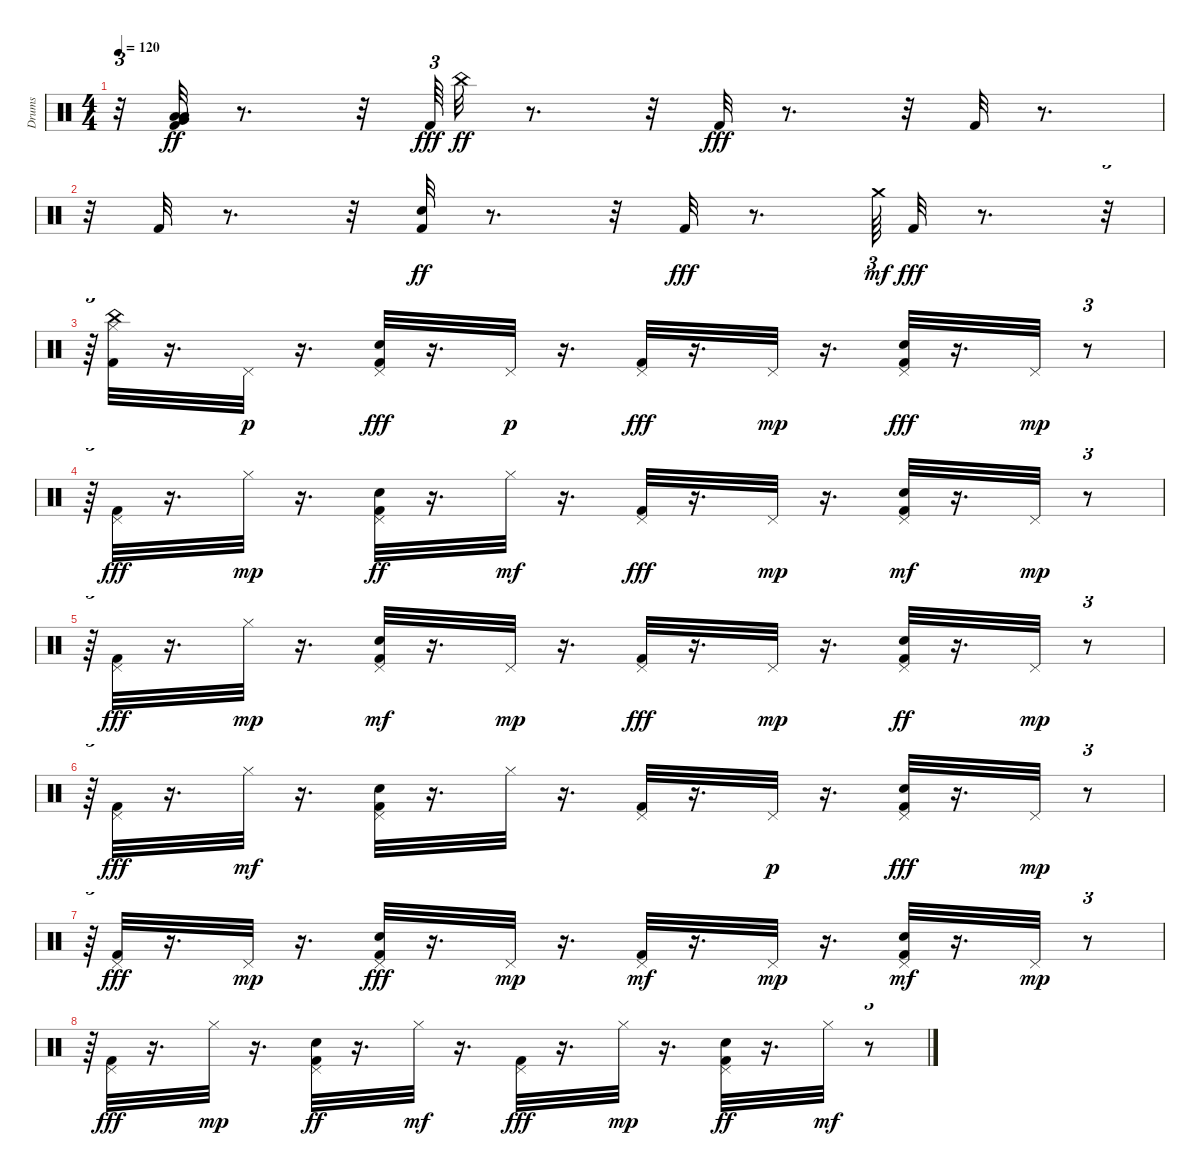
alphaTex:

\track ("Drums" "Drums") {instrument percussion}
\staff {score}
\articulation defaults
\ts (4 4)
\tempo 120
\clef neutral
\ks c
r.32{tu (3 2) dy fff} ("Low Tom (hit)" "Kick (hit) 2" "Very Low Tom (hit)" "Low Floor Tom (hit)").32{dy ff} r.8{d} r.32 "Kick (hit) 2".64{tu (3 2) dy fff} "China (hit)".32{dy ff} r.8{d} r.32 "Kick (hit) 2".32{dy fff} r.8{d} r.32 "Kick (hit) 2".32 r.8{d} |
r.32 "Kick (hit) 2".32 r.8{d} r.32 ("Kick (hit) 2" "Snare (hit) 2").32{dy ff} r.8{d} r.32 "Kick (hit) 2".32{dy fff} r.8{d} "Crash medium (hit)".64{tu (3 2) dy mf} "Kick (hit) 2".32{dy fff} r.8{d} r.32{tu (3 2)} |
r.64{tu (3 2)} ("China (hit)" "Kick (hit) 2" "Hi-Hat (closed)").32 r.16{d} "Pedal Hi-Hat (hit)".32{dy p} r.16{d} ("Pedal Hi-Hat (hit)" "Snare (hit) 2" "Kick (hit) 2").32{dy fff} r.16{d} "Pedal Hi-Hat (hit)".32{dy p} r.16{d} ("Pedal Hi-Hat (hit)" "Kick (hit) 2").32{dy fff} r.16{d} "Pedal Hi-Hat (hit)".32{dy mp} r.16{d} ("Pedal Hi-Hat (hit)" "Snare (hit) 2" "Kick (hit) 2").32{dy fff} r.16{d} "Pedal Hi-Hat (hit)".32{dy mp} r.8{tu (3 2)} |
r.64{tu (3 2)} ("Pedal Hi-Hat (hit)" "Kick (hit) 2").32{dy fff} r.16{d} "Hi-Hat (closed)".32{dy mp} r.16{d} ("Pedal Hi-Hat (hit)" "Kick (hit) 2" "Snare (hit) 2").32{dy ff} r.16{d} "Hi-Hat (closed)".32{dy mf} r.16{d} ("Pedal Hi-Hat (hit)" "Kick (hit) 2").32{dy fff} r.16{d} "Pedal Hi-Hat (hit)".32{dy mp} r.16{d} ("Snare (hit) 2" "Kick (hit) 2" "Pedal Hi-Hat (hit)").32{dy mf} r.16{d} "Pedal Hi-Hat (hit)".32{dy mp} r.8{tu (3 2)} |
r.64{tu (3 2)} ("Pedal Hi-Hat (hit)" "Kick (hit) 2").32{dy fff} r.16{d} "Hi-Hat (closed)".32{dy mp} r.16{d} ("Kick (hit) 2" "Snare (hit) 2" "Pedal Hi-Hat (hit)").32{dy mf} r.16{d} "Pedal Hi-Hat (hit)".32{dy mp} r.16{d} ("Pedal Hi-Hat (hit)" "Kick (hit) 2").32{dy fff} r.16{d} "Pedal Hi-Hat (hit)".32{dy mp} r.16{d} ("Kick (hit) 2" "Pedal Hi-Hat (hit)" "Snare (hit) 2").32{dy ff} r.16{d} "Pedal Hi-Hat (hit)".32{dy mp} r.8{tu (3 2)} |
r.64{tu (3 2)} ("Kick (hit) 2" "Pedal Hi-Hat (hit)").32{dy fff} r.16{d} "Hi-Hat (closed)".32{dy mf} r.16{d} ("Snare (hit) 2" "Kick (hit) 2" "Pedal Hi-Hat (hit)").32 r.16{d} "Hi-Hat (closed)".32 r.16{d} ("Kick (hit) 2" "Pedal Hi-Hat (hit)").32 r.16{d} "Pedal Hi-Hat (hit)".32{dy p} r.16{d} ("Pedal Hi-Hat (hit)" "Snare (hit) 2" "Kick (hit) 2").32{dy fff} r.16{d} "Pedal Hi-Hat (hit)".32{dy mp} r.8{tu (3 2)} |
r.64{tu (3 2)} ("Pedal Hi-Hat (hit)" "Kick (hit) 2").32{dy fff} r.16{d} "Pedal Hi-Hat (hit)".32{dy mp} r.16{d} ("Pedal Hi-Hat (hit)" "Snare (hit) 2" "Kick (hit) 2").32{dy fff} r.16{d} "Pedal Hi-Hat (hit)".32{dy mp} r.16{d} ("Kick (hit) 2" "Pedal Hi-Hat (hit)").32{dy mf} r.16{d} "Pedal Hi-Hat (hit)".32{dy mp} r.16{d} ("Kick (hit) 2" "Snare (hit) 2" "Pedal Hi-Hat (hit)").32{dy mf} r.16{d} "Pedal Hi-Hat (hit)".32{dy mp} r.8{tu (3 2)} |
r.64{tu (3 2)} ("Pedal Hi-Hat (hit)" "Kick (hit) 2").32{dy fff} r.16{d} "Hi-Hat (closed)".32{dy mp} r.16{d} ("Pedal Hi-Hat (hit)" "Kick (hit) 2" "Snare (hit) 2").32{dy ff} r.16{d} "Hi-Hat (closed)".32{dy mf} r.16{d} ("Pedal Hi-Hat (hit)" "Kick (hit) 2").32{dy fff} r.16{d} "Hi-Hat (closed)".32{dy mp} r.16{d} ("Pedal Hi-Hat (hit)" "Kick (hit) 2" "Snare (hit) 2").32{dy ff} r.16{d} "Hi-Hat (closed)".32{dy mf} r.8{tu (3 2)}
